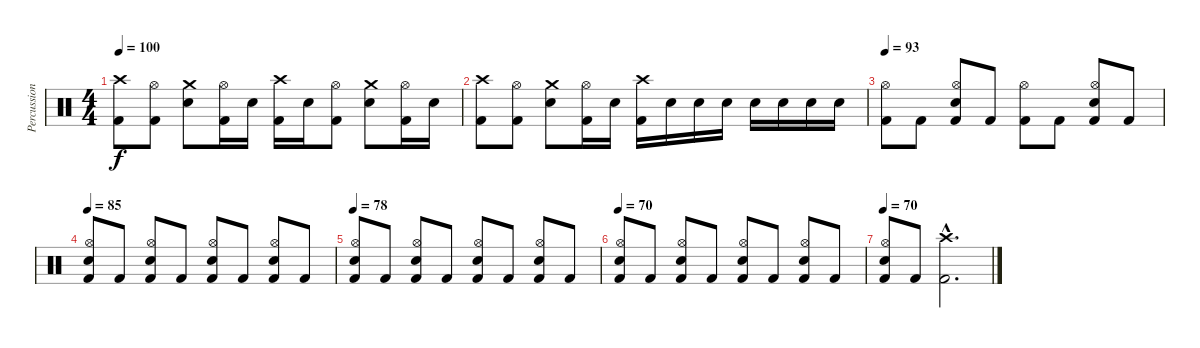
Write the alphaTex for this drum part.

\track ("Percussion" "Percussion") {instrument percussion}
\staff {score}
\articulation defaults
\ts (4 4)
\tempo 100
\clef neutral
\ks c
("Crash high (hit)" "Kick (hit) 2").8{dy f} ("Hi-Hat (open)" "Kick (hit) 2").8 ("Crash medium (hit)" "Electric Snare (hit)").8 ("Hi-Hat (open)" "Kick (hit) 2").16 "Electric Snare (hit)".16 ("Crash high (hit)" "Kick (hit) 2").16 "Electric Snare (hit)".16 ("Hi-Hat (open)" "Kick (hit) 2").8 ("Crash medium (hit)" "Electric Snare (hit)").8 ("Hi-Hat (open)" "Kick (hit) 2").16 "Electric Snare (hit)".16 |
("Crash high (hit)" "Kick (hit) 2").8 ("Hi-Hat (open)" "Kick (hit) 2").8 ("Crash medium (hit)" "Electric Snare (hit)").8 ("Hi-Hat (open)" "Kick (hit) 2").16 "Electric Snare (hit)".16 ("Crash high (hit)" "Kick (hit) 2").16 "Electric Snare (hit)".16 "Electric Snare (hit)".16 "Electric Snare (hit)".16 "Electric Snare (hit)".16 "Electric Snare (hit)".16 "Electric Snare (hit)".16 "Electric Snare (hit)".16 |
\tempo 93
("Hi-Hat (open)" "Kick (hit) 2").8 "Kick (hit) 2".8 ("Hi-Hat (open)" "Electric Snare (hit)" "Kick (hit) 2").8 "Kick (hit) 2".8 ("Hi-Hat (open)" "Kick (hit) 2").8 "Kick (hit) 2".8 ("Hi-Hat (open)" "Electric Snare (hit)" "Kick (hit) 2").8 "Kick (hit) 2".8 |
\tempo 85
("Hi-Hat (open)" "Electric Snare (hit)" "Kick (hit) 2").8 "Kick (hit) 2".8 ("Hi-Hat (open)" "Electric Snare (hit)" "Kick (hit) 2").8 "Kick (hit) 2".8 ("Hi-Hat (open)" "Electric Snare (hit)" "Kick (hit) 2").8 "Kick (hit) 2".8 ("Hi-Hat (open)" "Electric Snare (hit)" "Kick (hit) 2").8 "Kick (hit) 2".8 |
\tempo 78
("Hi-Hat (open)" "Electric Snare (hit)" "Kick (hit) 2").8 "Kick (hit) 2".8 ("Hi-Hat (open)" "Electric Snare (hit)" "Kick (hit) 2").8 "Kick (hit) 2".8 ("Hi-Hat (open)" "Electric Snare (hit)" "Kick (hit) 2").8 "Kick (hit) 2".8 ("Hi-Hat (open)" "Electric Snare (hit)" "Kick (hit) 2").8 "Kick (hit) 2".8 |
\tempo 70
("Hi-Hat (open)" "Electric Snare (hit)" "Kick (hit) 2").8 "Kick (hit) 2".8 ("Hi-Hat (open)" "Electric Snare (hit)" "Kick (hit) 2").8 "Kick (hit) 2".8 ("Hi-Hat (open)" "Electric Snare (hit)" "Kick (hit) 2").8 "Kick (hit) 2".8 ("Hi-Hat (open)" "Electric Snare (hit)" "Kick (hit) 2").8 "Kick (hit) 2".8 |
\tempo 70
("Hi-Hat (open)" "Electric Snare (hit)" "Kick (hit) 2").8 "Kick (hit) 2".8 ("Crash high (hit)"{hac} "Kick (hit) 2"{hac}).2{d}
